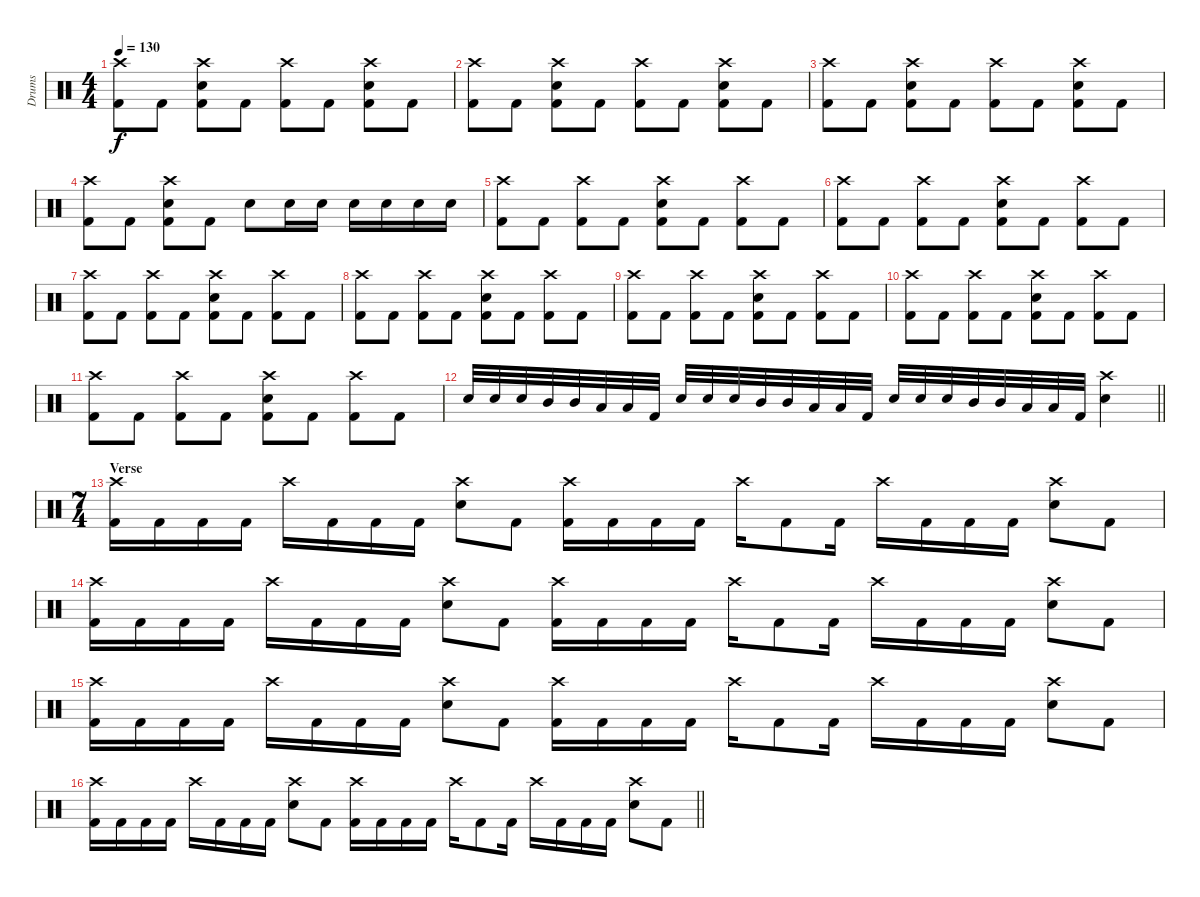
\track ("Drums" "Drums") {instrument percussion}
\staff {score}
\articulation defaults
\ts (4 4)
\tempo 130
\clef neutral
\ks c
("Crash high (hit)" "Kick (hit) 2").8{dy f} "Kick (hit) 2".8 ("Crash high (hit)" "Electric Snare (hit)" "Kick (hit) 2").8 "Kick (hit) 2".8 ("Crash high (hit)" "Kick (hit) 2").8 "Kick (hit) 2".8 ("Crash high (hit)" "Electric Snare (hit)" "Kick (hit) 2").8 "Kick (hit) 2".8 |
("Crash high (hit)" "Kick (hit) 2").8 "Kick (hit) 2".8 ("Crash high (hit)" "Electric Snare (hit)" "Kick (hit) 2").8 "Kick (hit) 2".8 ("Crash high (hit)" "Kick (hit) 2").8 "Kick (hit) 2".8 ("Crash high (hit)" "Electric Snare (hit)" "Kick (hit) 2").8 "Kick (hit) 2".8 |
("Crash high (hit)" "Kick (hit) 2").8 "Kick (hit) 2".8 ("Crash high (hit)" "Electric Snare (hit)" "Kick (hit) 2").8 "Kick (hit) 2".8 ("Crash high (hit)" "Kick (hit) 2").8 "Kick (hit) 2".8 ("Crash high (hit)" "Electric Snare (hit)" "Kick (hit) 2").8 "Kick (hit) 2".8 |
("Crash high (hit)" "Kick (hit) 2").8 "Kick (hit) 2".8 ("Crash high (hit)" "Electric Snare (hit)" "Kick (hit) 2").8 "Kick (hit) 2".8 "Electric Snare (hit)".8 "Electric Snare (hit)".16 "Electric Snare (hit)".16 "Electric Snare (hit)".16 "Electric Snare (hit)".16 "Electric Snare (hit)".16 "Electric Snare (hit)".16 |
("Crash high (hit)" "Kick (hit) 2").8 "Kick (hit) 2".8 ("Crash high (hit)" "Kick (hit) 2").8 "Kick (hit) 2".8 ("Crash high (hit)" "Electric Snare (hit)" "Kick (hit) 2").8 "Kick (hit) 2".8 ("Crash high (hit)" "Kick (hit) 2").8 "Kick (hit) 2".8 |
("Crash high (hit)" "Kick (hit) 2").8 "Kick (hit) 2".8 ("Crash high (hit)" "Kick (hit) 2").8 "Kick (hit) 2".8 ("Crash high (hit)" "Electric Snare (hit)" "Kick (hit) 2").8 "Kick (hit) 2".8 ("Crash high (hit)" "Kick (hit) 2").8 "Kick (hit) 2".8 |
("Crash high (hit)" "Kick (hit) 2").8 "Kick (hit) 2".8 ("Crash high (hit)" "Kick (hit) 2").8 "Kick (hit) 2".8 ("Crash high (hit)" "Electric Snare (hit)" "Kick (hit) 2").8 "Kick (hit) 2".8 ("Crash high (hit)" "Kick (hit) 2").8 "Kick (hit) 2".8 |
("Crash high (hit)" "Kick (hit) 2").8 "Kick (hit) 2".8 ("Crash high (hit)" "Kick (hit) 2").8 "Kick (hit) 2".8 ("Crash high (hit)" "Electric Snare (hit)" "Kick (hit) 2").8 "Kick (hit) 2".8 ("Crash high (hit)" "Kick (hit) 2").8 "Kick (hit) 2".8 |
("Crash high (hit)" "Kick (hit) 2").8 "Kick (hit) 2".8 ("Crash high (hit)" "Kick (hit) 2").8 "Kick (hit) 2".8 ("Crash high (hit)" "Electric Snare (hit)" "Kick (hit) 2").8 "Kick (hit) 2".8 ("Crash high (hit)" "Kick (hit) 2").8 "Kick (hit) 2".8 |
("Crash high (hit)" "Kick (hit) 2").8 "Kick (hit) 2".8 ("Crash high (hit)" "Kick (hit) 2").8 "Kick (hit) 2".8 ("Crash high (hit)" "Electric Snare (hit)" "Kick (hit) 2").8 "Kick (hit) 2".8 ("Crash high (hit)" "Kick (hit) 2").8 "Kick (hit) 2".8 |
("Crash high (hit)" "Kick (hit) 2").8 "Kick (hit) 2".8 ("Crash high (hit)" "Kick (hit) 2").8 "Kick (hit) 2".8 ("Crash high (hit)" "Electric Snare (hit)" "Kick (hit) 2").8 "Kick (hit) 2".8 ("Crash high (hit)" "Kick (hit) 2").8 "Kick (hit) 2".8 |
\barLineRight lightlight "Electric Snare (hit)".32 "Electric Snare (hit)".32 "Electric Snare (hit)".32 "Mid Tom (hit)".32 "Mid Tom (hit)".32 "Low Tom (hit)".32 "Low Tom (hit)".32 "Kick (hit) 2".32 "Electric Snare (hit)".32 "Electric Snare (hit)".32 "Electric Snare (hit)".32 "Mid Tom (hit)".32 "Mid Tom (hit)".32 "Low Tom (hit)".32 "Low Tom (hit)".32 "Kick (hit) 2".32 "Electric Snare (hit)".32 "Electric Snare (hit)".32 "Electric Snare (hit)".32 "Mid Tom (hit)".32 "Mid Tom (hit)".32 "Low Tom (hit)".32 "Low Tom (hit)".32 "Kick (hit) 2".32
("Crash high (hit)" "Electric Snare (hit)").4 |
\ts (7 4)
\section ("" "Verse")
("Crash high (hit)" "Kick (hit) 2").16 "Kick (hit) 2".16 "Kick (hit) 2".16 "Kick (hit) 2".16 "Crash high (hit)".16 "Kick (hit) 2".16 "Kick (hit) 2".16 "Kick (hit) 2".16 ("Crash high (hit)" "Electric Snare (hit)").8 "Kick (hit) 2".8 ("Crash high (hit)" "Kick (hit) 2").16 "Kick (hit) 2".16 "Kick (hit) 2".16 "Kick (hit) 2".16 "Crash high (hit)".16 "Kick (hit) 2".8 "Kick (hit) 2".16 "Crash high (hit)".16 "Kick (hit) 2".16 "Kick (hit) 2".16 "Kick (hit) 2".16 ("Crash high (hit)" "Electric Snare (hit)").8 "Kick (hit) 2".8 |
("Crash high (hit)" "Kick (hit) 2").16 "Kick (hit) 2".16 "Kick (hit) 2".16 "Kick (hit) 2".16 "Crash high (hit)".16 "Kick (hit) 2".16 "Kick (hit) 2".16 "Kick (hit) 2".16 ("Crash high (hit)" "Electric Snare (hit)").8 "Kick (hit) 2".8 ("Crash high (hit)" "Kick (hit) 2").16 "Kick (hit) 2".16 "Kick (hit) 2".16 "Kick (hit) 2".16 "Crash high (hit)".16 "Kick (hit) 2".8 "Kick (hit) 2".16 "Crash high (hit)".16 "Kick (hit) 2".16 "Kick (hit) 2".16 "Kick (hit) 2".16 ("Crash high (hit)" "Electric Snare (hit)").8 "Kick (hit) 2".8 |
("Crash high (hit)" "Kick (hit) 2").16 "Kick (hit) 2".16 "Kick (hit) 2".16 "Kick (hit) 2".16 "Crash high (hit)".16 "Kick (hit) 2".16 "Kick (hit) 2".16 "Kick (hit) 2".16 ("Crash high (hit)" "Electric Snare (hit)").8 "Kick (hit) 2".8 ("Crash high (hit)" "Kick (hit) 2").16 "Kick (hit) 2".16 "Kick (hit) 2".16 "Kick (hit) 2".16 "Crash high (hit)".16 "Kick (hit) 2".8 "Kick (hit) 2".16 "Crash high (hit)".16 "Kick (hit) 2".16 "Kick (hit) 2".16 "Kick (hit) 2".16 ("Crash high (hit)" "Electric Snare (hit)").8 "Kick (hit) 2".8 |
\barLineRight lightlight
("Crash high (hit)" "Kick (hit) 2").16 "Kick (hit) 2".16 "Kick (hit) 2".16 "Kick (hit) 2".16 "Crash high (hit)".16 "Kick (hit) 2".16 "Kick (hit) 2".16 "Kick (hit) 2".16 ("Crash high (hit)" "Electric Snare (hit)").8 "Kick (hit) 2".8 ("Crash high (hit)" "Kick (hit) 2").16 "Kick (hit) 2".16 "Kick (hit) 2".16 "Kick (hit) 2".16 "Crash high (hit)".16 "Kick (hit) 2".8 "Kick (hit) 2".16 "Crash high (hit)".16 "Kick (hit) 2".16 "Kick (hit) 2".16 "Kick (hit) 2".16 ("Crash high (hit)" "Electric Snare (hit)").8 "Kick (hit) 2".8
